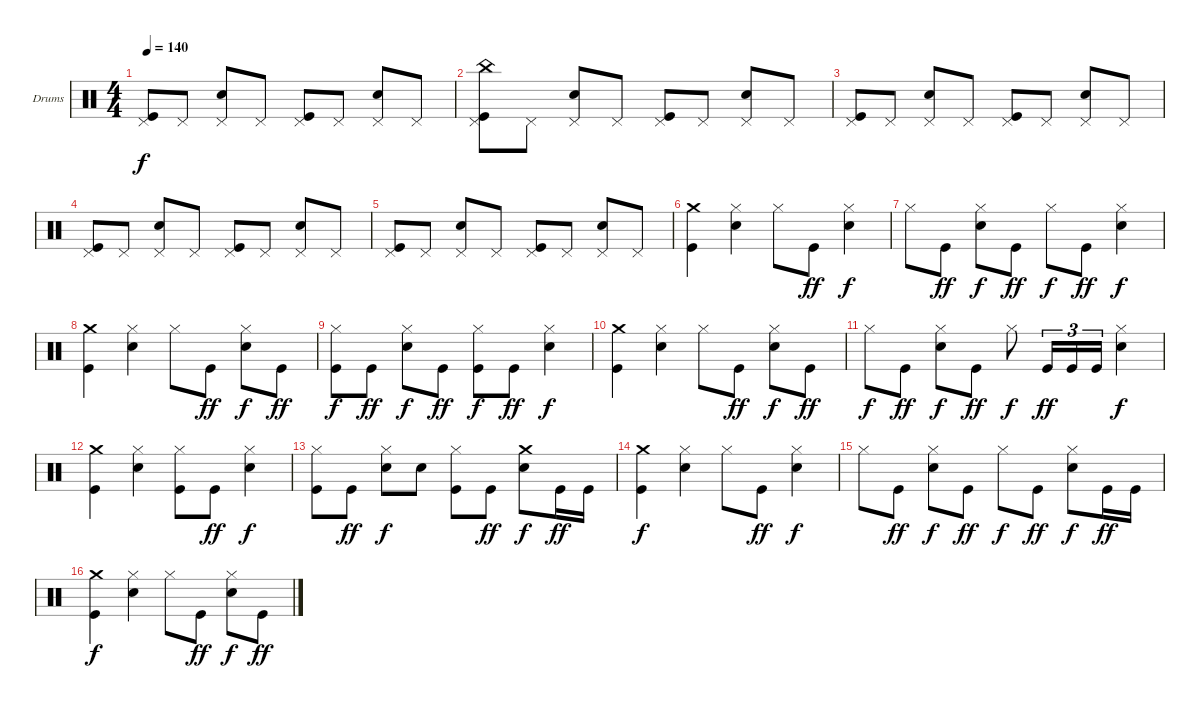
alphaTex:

\defaultSystemsLayout 4
\bracketExtendMode groupsimilarinstruments
\firstSystemTrackNameOrientation horizontal
\otherSystemsTrackNameOrientation horizontal
\track ("Drumkit" "Drums") {instrument percussion}
\staff {score}
\articulation defaults
\ts (4 4)
\tempo 140
\clef neutral
\ks c
("Pedal Hi-Hat (hit)" "Kick (hit)").8{dy f} "Pedal Hi-Hat (hit)".8 ("Pedal Hi-Hat (hit)" "Snare (hit) 2").8 "Pedal Hi-Hat (hit)".8 ("Pedal Hi-Hat (hit)" "Kick (hit)").8 "Pedal Hi-Hat (hit)".8 ("Pedal Hi-Hat (hit)" "Snare (hit) 2").8 "Pedal Hi-Hat (hit)".8 |
("Pedal Hi-Hat (hit)" "Kick (hit)" "China (hit)").8 "Pedal Hi-Hat (hit)".8 ("Pedal Hi-Hat (hit)" "Snare (hit) 2").8 "Pedal Hi-Hat (hit)".8 ("Pedal Hi-Hat (hit)" "Kick (hit)").8 "Pedal Hi-Hat (hit)".8 ("Pedal Hi-Hat (hit)" "Snare (hit) 2").8 "Pedal Hi-Hat (hit)".8 |
("Pedal Hi-Hat (hit)" "Kick (hit)").8 "Pedal Hi-Hat (hit)".8 ("Pedal Hi-Hat (hit)" "Snare (hit) 2").8 "Pedal Hi-Hat (hit)".8 ("Pedal Hi-Hat (hit)" "Kick (hit)").8 "Pedal Hi-Hat (hit)".8 ("Pedal Hi-Hat (hit)" "Snare (hit) 2").8 "Pedal Hi-Hat (hit)".8 |
("Pedal Hi-Hat (hit)" "Kick (hit)").8 "Pedal Hi-Hat (hit)".8 ("Pedal Hi-Hat (hit)" "Snare (hit) 2").8 "Pedal Hi-Hat (hit)".8 ("Pedal Hi-Hat (hit)" "Kick (hit)").8 "Pedal Hi-Hat (hit)".8 ("Pedal Hi-Hat (hit)" "Snare (hit) 2").8 "Pedal Hi-Hat (hit)".8 |
("Pedal Hi-Hat (hit)" "Kick (hit)").8 "Pedal Hi-Hat (hit)".8 ("Pedal Hi-Hat (hit)" "Snare (hit) 2").8 "Pedal Hi-Hat (hit)".8 ("Pedal Hi-Hat (hit)" "Kick (hit)").8 "Pedal Hi-Hat (hit)".8 ("Pedal Hi-Hat (hit)" "Snare (hit) 2").8 "Pedal Hi-Hat (hit)".8 |
("Crash medium (hit)" "Kick (hit)").4 ("Hi-Hat (closed)" "Snare (hit) 2").4 "Hi-Hat (closed)".8 "Kick (hit)".8{dy ff} ("Hi-Hat (closed)" "Snare (hit) 2").4{dy f} |
"Hi-Hat (closed)".8 "Kick (hit)".8{dy ff} ("Hi-Hat (closed)" "Snare (hit) 2").8{dy f} "Kick (hit)".8{dy ff} "Hi-Hat (closed)".8{dy f} "Kick (hit)".8{dy ff} ("Hi-Hat (closed)" "Snare (hit) 2").4{dy f} |
("Crash medium (hit)" "Kick (hit)").4 ("Hi-Hat (closed)" "Snare (hit) 2").4 "Hi-Hat (closed)".8 "Kick (hit)".8{dy ff} ("Hi-Hat (closed)" "Snare (hit) 2").8{dy f} "Kick (hit)".8{dy ff} |
("Hi-Hat (closed)" "Kick (hit)").8{dy f} "Kick (hit)".8{dy ff} ("Hi-Hat (closed)" "Snare (hit) 2").8{dy f} "Kick (hit)".8{dy ff} ("Hi-Hat (closed)" "Kick (hit)").8{dy f} "Kick (hit)".8{dy ff} ("Hi-Hat (closed)" "Snare (hit) 2").4{dy f} |
("Crash medium (hit)" "Kick (hit)").4 ("Hi-Hat (closed)" "Snare (hit) 2").4 "Hi-Hat (closed)".8 "Kick (hit)".8{dy ff} ("Hi-Hat (closed)" "Snare (hit) 2").8{dy f} "Kick (hit)".8{dy ff} |
"Hi-Hat (closed)".8{dy f} "Kick (hit)".8{dy ff} ("Hi-Hat (closed)" "Snare (hit) 2").8{dy f} "Kick (hit)".8{dy ff} "Hi-Hat (closed)".8{dy f} "Kick (hit)".16{tu (3 2) dy ff} "Kick (hit)".16{tu (3 2)} "Kick (hit)".16{tu (3 2)} ("Hi-Hat (closed)" "Snare (hit) 2").4{dy f} |
("Crash medium (hit)" "Kick (hit)").4 ("Hi-Hat (closed)" "Snare (hit) 2").4 ("Hi-Hat (closed)" "Kick (hit)").8 "Kick (hit)".8{dy ff} ("Hi-Hat (closed)" "Snare (hit) 2").4{dy f} |
("Hi-Hat (closed)" "Kick (hit)").8 "Kick (hit)".8{dy ff} ("Hi-Hat (closed)" "Snare (hit) 2").8{dy f} "Snare (hit) 2".8 ("Hi-Hat (closed)" "Kick (hit)").8 "Kick (hit)".8{dy ff} ("Crash medium (hit)" "Snare (hit) 2").8{dy f} "Kick (hit)".16{dy ff} "Kick (hit)".16 |
("Crash medium (hit)" "Kick (hit)").4{dy f} ("Hi-Hat (closed)" "Snare (hit) 2").4 "Hi-Hat (closed)".8 "Kick (hit)".8{dy ff} ("Hi-Hat (closed)" "Snare (hit) 2").4{dy f} |
"Hi-Hat (closed)".8 "Kick (hit)".8{dy ff} ("Hi-Hat (closed)" "Snare (hit) 2").8{dy f} "Kick (hit)".8{dy ff} "Hi-Hat (closed)".8{dy f} "Kick (hit)".8{dy ff} ("Hi-Hat (closed)" "Snare (hit) 2").8{dy f} "Kick (hit)".16{dy ff} "Kick (hit)".16 |
("Crash medium (hit)" "Kick (hit)").4{dy f} ("Hi-Hat (closed)" "Snare (hit) 2").4 "Hi-Hat (closed)".8 "Kick (hit)".8{dy ff} ("Hi-Hat (closed)" "Snare (hit) 2").8{dy f} "Kick (hit)".8{dy ff}
